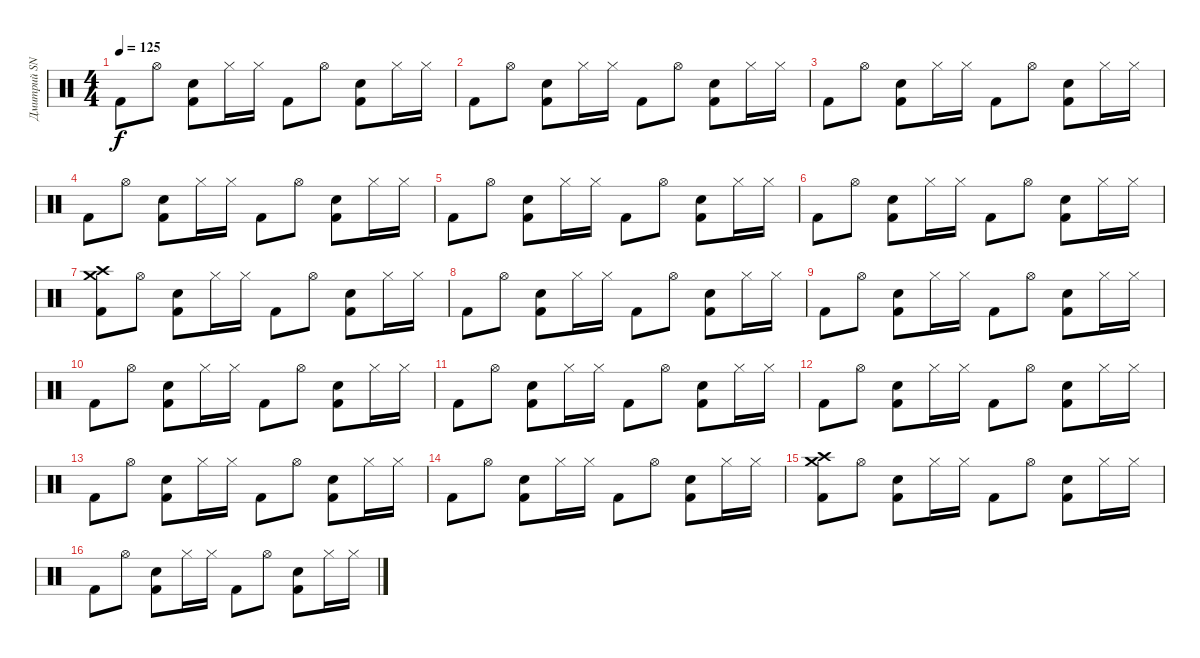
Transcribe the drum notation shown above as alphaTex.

\track ("Дмитрий SNAKE Хакимов" "Дмитрий SN") {instrument percussion}
\staff {score}
\articulation defaults
\ts (4 4)
\tempo 125
\clef neutral
\ks c "Kick (hit) 2".8{dy f} "Hi-Hat (open)".8
("Snare (hit) 2" "Kick (hit) 2").8 "Hi-Hat (closed)".16 "Hi-Hat (closed)".16 "Kick (hit) 2".8 "Hi-Hat (open)".8 ("Snare (hit) 2" "Kick (hit) 2").8 "Hi-Hat (closed)".16 "Hi-Hat (closed)".16 |
"Kick (hit) 2".8 "Hi-Hat (open)".8 ("Snare (hit) 2" "Kick (hit) 2").8 "Hi-Hat (closed)".16 "Hi-Hat (closed)".16 "Kick (hit) 2".8 "Hi-Hat (open)".8 ("Snare (hit) 2" "Kick (hit) 2").8 "Hi-Hat (closed)".16 "Hi-Hat (closed)".16 |
"Kick (hit) 2".8 "Hi-Hat (open)".8 ("Snare (hit) 2" "Kick (hit) 2").8 "Hi-Hat (closed)".16 "Hi-Hat (closed)".16 "Kick (hit) 2".8 "Hi-Hat (open)".8 ("Snare (hit) 2" "Kick (hit) 2").8 "Hi-Hat (closed)".16 "Hi-Hat (closed)".16 |
"Kick (hit) 2".8 "Hi-Hat (open)".8 ("Snare (hit) 2" "Kick (hit) 2").8 "Hi-Hat (closed)".16 "Hi-Hat (closed)".16 "Kick (hit) 2".8 "Hi-Hat (open)".8 ("Snare (hit) 2" "Kick (hit) 2").8 "Hi-Hat (closed)".16 "Hi-Hat (closed)".16 |
"Kick (hit) 2".8 "Hi-Hat (open)".8 ("Snare (hit) 2" "Kick (hit) 2").8 "Hi-Hat (closed)".16 "Hi-Hat (closed)".16 "Kick (hit) 2".8 "Hi-Hat (open)".8 ("Snare (hit) 2" "Kick (hit) 2").8 "Hi-Hat (closed)".16 "Hi-Hat (closed)".16 |
"Kick (hit) 2".8 "Hi-Hat (open)".8 ("Snare (hit) 2" "Kick (hit) 2").8 "Hi-Hat (closed)".16 "Hi-Hat (closed)".16 "Kick (hit) 2".8 "Hi-Hat (open)".8 ("Snare (hit) 2" "Kick (hit) 2").8 "Hi-Hat (closed)".16 "Hi-Hat (closed)".16 |
("Crash high (hit)" "Crash medium (hit)" "Kick (hit) 2").8 "Hi-Hat (open)".8 ("Snare (hit) 2" "Kick (hit) 2").8 "Hi-Hat (closed)".16 "Hi-Hat (closed)".16 "Kick (hit) 2".8 "Hi-Hat (open)".8 ("Snare (hit) 2" "Kick (hit) 2").8 "Hi-Hat (closed)".16 "Hi-Hat (closed)".16 |
"Kick (hit) 2".8 "Hi-Hat (open)".8 ("Snare (hit) 2" "Kick (hit) 2").8 "Hi-Hat (closed)".16 "Hi-Hat (closed)".16 "Kick (hit) 2".8 "Hi-Hat (open)".8 ("Snare (hit) 2" "Kick (hit) 2").8 "Hi-Hat (closed)".16 "Hi-Hat (closed)".16 |
"Kick (hit) 2".8 "Hi-Hat (open)".8 ("Snare (hit) 2" "Kick (hit) 2").8 "Hi-Hat (closed)".16 "Hi-Hat (closed)".16 "Kick (hit) 2".8 "Hi-Hat (open)".8 ("Snare (hit) 2" "Kick (hit) 2").8 "Hi-Hat (closed)".16 "Hi-Hat (closed)".16 |
"Kick (hit) 2".8 "Hi-Hat (open)".8 ("Snare (hit) 2" "Kick (hit) 2").8 "Hi-Hat (closed)".16 "Hi-Hat (closed)".16 "Kick (hit) 2".8 "Hi-Hat (open)".8 ("Snare (hit) 2" "Kick (hit) 2").8 "Hi-Hat (closed)".16 "Hi-Hat (closed)".16 |
"Kick (hit) 2".8 "Hi-Hat (open)".8 ("Snare (hit) 2" "Kick (hit) 2").8 "Hi-Hat (closed)".16 "Hi-Hat (closed)".16 "Kick (hit) 2".8 "Hi-Hat (open)".8 ("Snare (hit) 2" "Kick (hit) 2").8 "Hi-Hat (closed)".16 "Hi-Hat (closed)".16 |
"Kick (hit) 2".8 "Hi-Hat (open)".8 ("Snare (hit) 2" "Kick (hit) 2").8 "Hi-Hat (closed)".16 "Hi-Hat (closed)".16 "Kick (hit) 2".8 "Hi-Hat (open)".8 ("Snare (hit) 2" "Kick (hit) 2").8 "Hi-Hat (closed)".16 "Hi-Hat (closed)".16 |
"Kick (hit) 2".8 "Hi-Hat (open)".8 ("Snare (hit) 2" "Kick (hit) 2").8 "Hi-Hat (closed)".16 "Hi-Hat (closed)".16 "Kick (hit) 2".8 "Hi-Hat (open)".8 ("Snare (hit) 2" "Kick (hit) 2").8 "Hi-Hat (closed)".16 "Hi-Hat (closed)".16 |
"Kick (hit) 2".8 "Hi-Hat (open)".8 ("Snare (hit) 2" "Kick (hit) 2").8 "Hi-Hat (closed)".16 "Hi-Hat (closed)".16 "Kick (hit) 2".8 "Hi-Hat (open)".8 ("Snare (hit) 2" "Kick (hit) 2").8 "Hi-Hat (closed)".16 "Hi-Hat (closed)".16 |
("Crash high (hit)" "Crash medium (hit)" "Kick (hit) 2").8 "Hi-Hat (open)".8 ("Snare (hit) 2" "Kick (hit) 2").8 "Hi-Hat (closed)".16 "Hi-Hat (closed)".16 "Kick (hit) 2".8 "Hi-Hat (open)".8 ("Snare (hit) 2" "Kick (hit) 2").8 "Hi-Hat (closed)".16 "Hi-Hat (closed)".16 |
"Kick (hit) 2".8 "Hi-Hat (open)".8 ("Snare (hit) 2" "Kick (hit) 2").8 "Hi-Hat (closed)".16 "Hi-Hat (closed)".16 "Kick (hit) 2".8 "Hi-Hat (open)".8 ("Snare (hit) 2" "Kick (hit) 2").8 "Hi-Hat (closed)".16 "Hi-Hat (closed)".16
